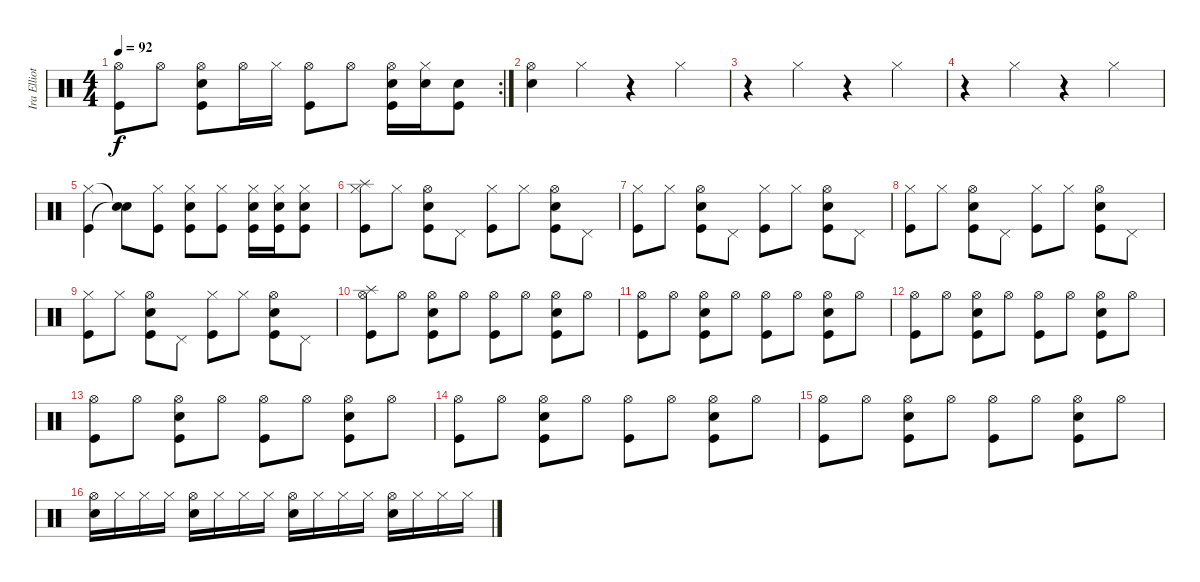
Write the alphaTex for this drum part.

\track ("Ira Elliot" "Ira Elliot") {instrument percussion}
\staff {score}
\articulation defaults
\rc 2
\ts (4 4)
\tempo 92
\clef neutral
\ks c
("Hi-Hat (open)" "Kick (hit)").8{dy f} "Hi-Hat (open)".8 ("Snare (hit) 2" "Hi-Hat (open)" "Kick (hit)").8 "Hi-Hat (open)".16 "Hi-Hat (closed)".16 ("Hi-Hat (open)" "Kick (hit)").8 "Hi-Hat (open)".8 ("Snare (hit) 2" "Hi-Hat (open)" "Kick (hit)").16 ("Snare (hit) 2" "Hi-Hat (closed)").16 ("Snare (hit) 2" "Kick (hit)").8 |
("Hi-Hat (open)" "Snare (hit) 2").4 "Hi-Hat (closed)".4 r.4 "Hi-Hat (closed)".4 |
r.4 "Hi-Hat (closed)".4 r.4 "Hi-Hat (closed)".4 |
r.4 "Hi-Hat (closed)".4 r.4 "Hi-Hat (closed)".4 |
("Hi-Hat (closed)" "Kick (hit)").4 ("Snare (hit)"{t} "Snare (hit)"{t}).8 ("Hi-Hat (closed)" "Kick (hit)").8 ("Snare (hit) 2" "Hi-Hat (closed)" "Kick (hit)").8 ("Hi-Hat (closed)" "Kick (hit)").8 ("Snare (hit) 2" "Hi-Hat (closed)" "Kick (hit)").16 ("Snare (hit) 2" "Hi-Hat (closed)" "Kick (hit)").16 ("Snare (hit) 2" "Hi-Hat (closed)" "Kick (hit)").8 |
("Splash (hit)" "Hi-Hat (closed)" "Kick (hit)").8 "Hi-Hat (closed)".8 ("Snare (hit) 2" "Hi-Hat (open)" "Kick (hit)").8 "Pedal Hi-Hat (hit)".8 ("Hi-Hat (closed)" "Kick (hit)").8 "Hi-Hat (closed)".8 ("Snare (hit) 2" "Hi-Hat (open)" "Kick (hit)").8 "Pedal Hi-Hat (hit)".8 |
("Hi-Hat (closed)" "Kick (hit)").8 "Hi-Hat (closed)".8 ("Snare (hit) 2" "Hi-Hat (open)" "Kick (hit)").8 "Pedal Hi-Hat (hit)".8 ("Hi-Hat (closed)" "Kick (hit)").8 "Hi-Hat (closed)".8 ("Snare (hit) 2" "Hi-Hat (open)" "Kick (hit)").8 "Pedal Hi-Hat (hit)".8 |
("Hi-Hat (closed)" "Kick (hit)").8 "Hi-Hat (closed)".8 ("Snare (hit) 2" "Hi-Hat (open)" "Kick (hit)").8 "Pedal Hi-Hat (hit)".8 ("Hi-Hat (closed)" "Kick (hit)").8 "Hi-Hat (closed)".8 ("Snare (hit) 2" "Hi-Hat (open)" "Kick (hit)").8 "Pedal Hi-Hat (hit)".8 |
("Hi-Hat (closed)" "Kick (hit)").8 "Hi-Hat (closed)".8 ("Snare (hit) 2" "Hi-Hat (open)" "Kick (hit)").8 "Pedal Hi-Hat (hit)".8 ("Hi-Hat (closed)" "Kick (hit)").8 "Hi-Hat (closed)".8 ("Snare (hit) 2" "Hi-Hat (open)" "Kick (hit)").8 "Pedal Hi-Hat (hit)".8 |
("Splash (hit)" "Hi-Hat (open)" "Kick (hit)").8 "Hi-Hat (open)".8 ("Snare (hit) 2" "Hi-Hat (open)" "Kick (hit)").8 "Hi-Hat (open)".8 ("Hi-Hat (open)" "Kick (hit)").8 "Hi-Hat (open)".8 ("Snare (hit) 2" "Hi-Hat (open)" "Kick (hit)").8 "Hi-Hat (open)".8 |
("Hi-Hat (open)" "Kick (hit)").8 "Hi-Hat (open)".8 ("Snare (hit) 2" "Hi-Hat (open)" "Kick (hit)").8 "Hi-Hat (open)".8 ("Hi-Hat (open)" "Kick (hit)").8 "Hi-Hat (open)".8 ("Snare (hit) 2" "Hi-Hat (open)" "Kick (hit)").8 "Hi-Hat (open)".8 |
("Hi-Hat (open)" "Kick (hit)").8 "Hi-Hat (open)".8 ("Snare (hit) 2" "Hi-Hat (open)" "Kick (hit)").8 "Hi-Hat (open)".8 ("Hi-Hat (open)" "Kick (hit)").8 "Hi-Hat (open)".8 ("Snare (hit) 2" "Hi-Hat (open)" "Kick (hit)").8 "Hi-Hat (open)".8 |
("Hi-Hat (open)" "Kick (hit)").8 "Hi-Hat (open)".8 ("Snare (hit) 2" "Hi-Hat (open)" "Kick (hit)").8 "Hi-Hat (open)".8 ("Hi-Hat (open)" "Kick (hit)").8 "Hi-Hat (open)".8 ("Snare (hit) 2" "Hi-Hat (open)" "Kick (hit)").8 "Hi-Hat (open)".8 |
("Hi-Hat (open)" "Kick (hit)").8 "Hi-Hat (open)".8 ("Snare (hit) 2" "Hi-Hat (open)" "Kick (hit)").8 "Hi-Hat (open)".8 ("Hi-Hat (open)" "Kick (hit)").8 "Hi-Hat (open)".8 ("Snare (hit) 2" "Hi-Hat (open)" "Kick (hit)").8 "Hi-Hat (open)".8 |
("Hi-Hat (open)" "Kick (hit)").8 "Hi-Hat (open)".8 ("Snare (hit) 2" "Hi-Hat (open)" "Kick (hit)").8 "Hi-Hat (open)".8 ("Hi-Hat (open)" "Kick (hit)").8 "Hi-Hat (open)".8 ("Snare (hit) 2" "Hi-Hat (open)" "Kick (hit)").8 "Hi-Hat (open)".8 |
("Snare (hit) 2" "Hi-Hat (open)").16 "Hi-Hat (closed)".16 "Hi-Hat (closed)".16 "Hi-Hat (closed)".16 ("Snare (hit) 2" "Hi-Hat (open)").16 "Hi-Hat (closed)".16 "Hi-Hat (closed)".16 "Hi-Hat (closed)".16 ("Snare (hit) 2" "Hi-Hat (open)").16 "Hi-Hat (closed)".16 "Hi-Hat (closed)".16 "Hi-Hat (closed)".16 ("Snare (hit) 2" "Hi-Hat (open)").16 "Hi-Hat (closed)".16 "Hi-Hat (closed)".16 "Hi-Hat (closed)".16
